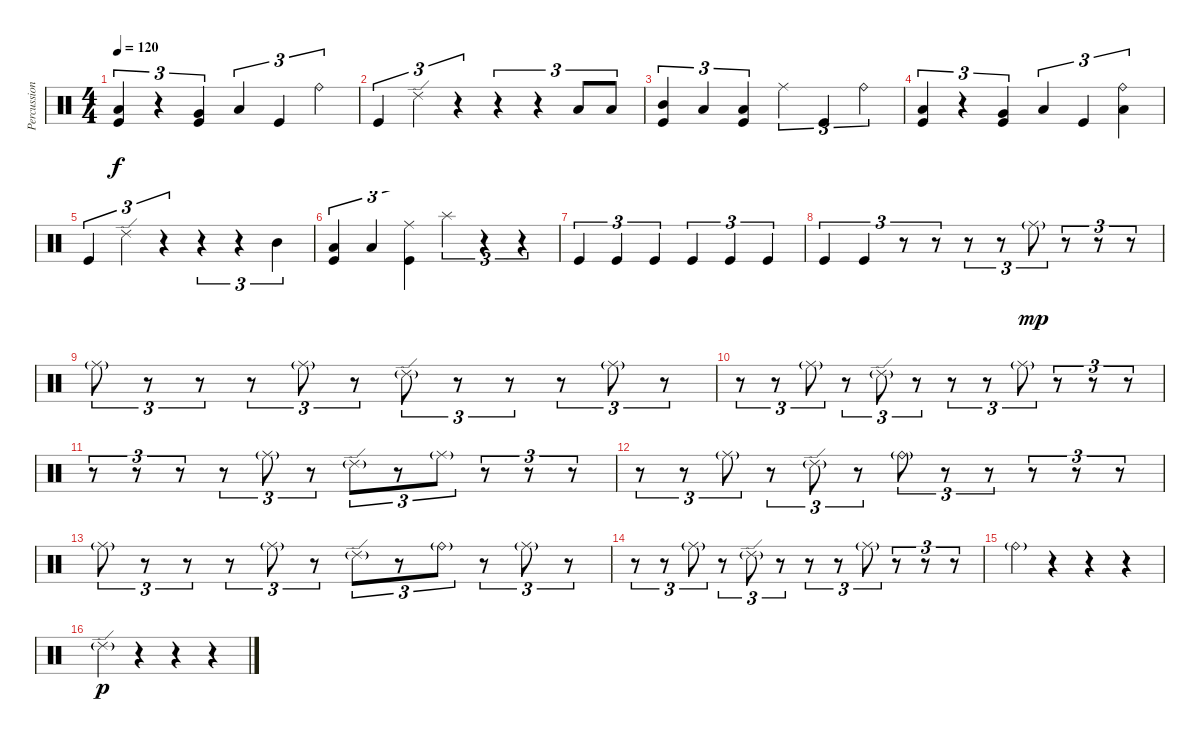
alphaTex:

\track ("Percussion" "Percussion") {instrument percussion}
\staff {score}
\articulation defaults
\ts (4 4)
\tempo 120
\clef neutral
\ks c
("Low Tom (hit)" "Kick (hit)").4{tu (3 2) dy f} r.4{tu (3 2)} ("Very Low Tom (hit)" "Kick (hit)").4{tu (3 2)} "Low Tom (hit)".4{tu (3 2)} "Kick (hit)".4{tu (3 2)} "Ride (bell)".4{tu (3 2)} |
"Kick (hit)".4{tu (3 2)} "Ride (edge) 2".4{tu (3 2)} r.4{tu (3 2)} r.4{tu (3 2)} r.4{tu (3 2)} "Low Tom (hit)".8{tu (3 2)} "Low Tom (hit)".8{tu (3 2)} |
("Mid Tom (hit)" "Kick (hit)").4{tu (3 2)} "Low Tom (hit)".4{tu (3 2)} ("Low Floor Tom (hit)" "Kick (hit)").4{tu (3 2)} "Ride (middle)".4{tu (3 2)} "Kick (hit)".4{tu (3 2)} "Ride (bell)".4{tu (3 2)} |
("Low Tom (hit)" "Kick (hit)").4{tu (3 2)} r.4{tu (3 2)} ("Very Low Tom (hit)" "Kick (hit)").4{tu (3 2)} "Low Tom (hit)".4{tu (3 2)} "Kick (hit)".4{tu (3 2)} ("Ride (bell)" "Low Tom (hit)").4{tu (3 2)} |
"Kick (hit)".4{tu (3 2)} "Ride (edge) 2".4{tu (3 2)} r.4{tu (3 2)} r.4{tu (3 2)} r.4{tu (3 2)} "Mid Tom (hit)".4{tu (3 2)} |
("Low Tom (hit)" "Kick (hit)").4{tu (3 2)} "Low Tom (hit)".4{tu (3 2)} ("Ride (middle)" "Kick (hit)").4{tu (3 2)} "Splash (hit)".4{tu (3 2)} r.4{tu (3 2)} r.4{tu (3 2)} |
"Kick (hit)".4{tu (3 2)} "Kick (hit)".4{tu (3 2)} "Kick (hit)".4{tu (3 2)} "Kick (hit)".4{tu (3 2)} "Kick (hit)".4{tu (3 2)} "Kick (hit)".4{tu (3 2)} |
"Kick (hit)".4{tu (3 2)} "Kick (hit)".4{tu (3 2)} r.8{tu (3 2)} r.8{tu (3 2)} r.8{tu (3 2)} r.8{tu (3 2)} "Ride (middle)"{g}.8{tu (3 2) dy mp} r.8{tu (3 2)} r.8{tu (3 2)} r.8{tu (3 2)} |
"Ride (middle)"{g}.8{tu (3 2)} r.8{tu (3 2)} r.8{tu (3 2)} r.8{tu (3 2)} "Ride (middle)"{g}.8{tu (3 2)} r.8{tu (3 2)} "Ride (edge) 2"{g}.8{tu (3 2)} r.8{tu (3 2)} r.8{tu (3 2)} r.8{tu (3 2)} "Ride (middle)"{g}.8{tu (3 2)} r.8{tu (3 2)} |
r.8{tu (3 2)} r.8{tu (3 2)} "Ride (middle)"{g}.8{tu (3 2)} r.8{tu (3 2)} "Ride (edge) 2"{g}.8{tu (3 2)} r.8{tu (3 2)} r.8{tu (3 2)} r.8{tu (3 2)} "Ride (middle)"{g}.8{tu (3 2)} r.8{tu (3 2)} r.8{tu (3 2)} r.8{tu (3 2)} |
r.8{tu (3 2)} r.8{tu (3 2)} r.8{tu (3 2)} r.8{tu (3 2)} "Ride (middle)"{g}.8{tu (3 2)} r.8{tu (3 2)} "Ride (edge) 2"{g}.8{tu (3 2)} r.8{tu (3 2)} "Ride (middle)"{g}.8{tu (3 2)} r.8{tu (3 2)} r.8{tu (3 2)} r.8{tu (3 2)} |
r.8{tu (3 2)} r.8{tu (3 2)} "Ride (middle)"{g}.8{tu (3 2)} r.8{tu (3 2)} "Ride (edge) 2"{g}.8{tu (3 2)} r.8{tu (3 2)} "Ride (bell)"{g}.8{tu (3 2)} r.8{tu (3 2)} r.8{tu (3 2)} r.8{tu (3 2)} r.8{tu (3 2)} r.8{tu (3 2)} |
"Ride (middle)"{g}.8{tu (3 2)} r.8{tu (3 2)} r.8{tu (3 2)} r.8{tu (3 2)} "Ride (middle)"{g}.8{tu (3 2)} r.8{tu (3 2)} "Ride (edge) 2"{g}.8{tu (3 2)} r.8{tu (3 2)} "Ride (bell)"{g}.8{tu (3 2)} r.8{tu (3 2)} "Ride (middle)"{g}.8{tu (3 2)} r.8{tu (3 2)} |
r.8{tu (3 2)} r.8{tu (3 2)} "Ride (middle)"{g}.8{tu (3 2)} r.8{tu (3 2)} "Ride (edge) 2"{g}.8{tu (3 2)} r.8{tu (3 2)} r.8{tu (3 2)} r.8{tu (3 2)} "Ride (middle)"{g}.8{tu (3 2)} r.8{tu (3 2)} r.8{tu (3 2)} r.8{tu (3 2)} |
"Ride (bell)"{g}.4 r.4 r.4 r.4 |
"Ride (edge) 2"{g}.4{dy p} r.4 r.4 r.4
